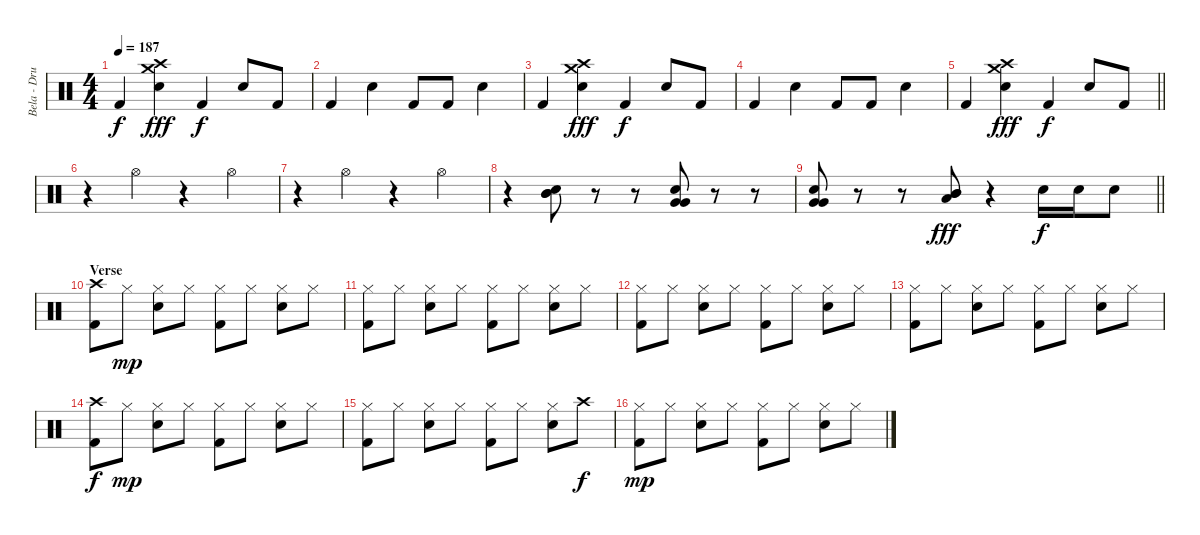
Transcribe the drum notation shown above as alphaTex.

\track ("Bela - Drums" "Bela - Dru") {instrument percussion}
\staff {score}
\articulation defaults
\ts (4 4)
\tempo 187
\clef neutral
\ks c "Kick (hit) 2".4{dy f}
("Crash medium (hit)" "Crash high (hit)" "Snare (hit) 2").4{dy fff} "Kick (hit) 2".4{dy f} "Snare (hit) 2".8 "Kick (hit) 2".8 |
"Kick (hit) 2".4 "Snare (hit) 2".4 "Kick (hit) 2".8 "Kick (hit) 2".8 "Snare (hit) 2".4 |
"Kick (hit) 2".4 ("Crash medium (hit)" "Crash high (hit)" "Snare (hit) 2").4{dy fff} "Kick (hit) 2".4{dy f} "Snare (hit) 2".8 "Kick (hit) 2".8 |
"Kick (hit) 2".4 "Snare (hit) 2".4 "Kick (hit) 2".8 "Kick (hit) 2".8 "Snare (hit) 2".4 |
\barLineRight lightlight "Kick (hit) 2".4
("Crash medium (hit)" "Crash high (hit)" "Snare (hit) 2").4{dy fff} "Kick (hit) 2".4{dy f} "Snare (hit) 2".8 "Kick (hit) 2".8 |
\section ("" "")
r.4 "Hi-Hat (open)".4 r.4 "Hi-Hat (open)".4 |
r.4 "Hi-Hat (open)".4 r.4 "Hi-Hat (open)".4 |
r.4 ("Mid Tom (hit)" "Mid Tom (hit)" "Electric Snare (hit)").8 r.8 r.8 ("Very Low Tom (hit)" "Very Low Tom (hit)" "Electric Snare (hit)").8 r.8 r.8 |
\barLineRight lightlight
("Very Low Tom (hit)" "Very Low Tom (hit)" "Electric Snare (hit)").8 r.8 r.8 ("Mid Tom (hit)" "Mid Tom (hit)" "Low Tom (hit)").8{dy fff} r.4 "Electric Snare (hit)".16{dy f} "Electric Snare (hit)".16 "Electric Snare (hit)".8 |
\section ("" "Verse")
("Crash high (hit)" "Kick (hit) 2").8 "Hi-Hat (closed)".8{dy mp} ("Hi-Hat (closed)" "Snare (hit) 2").8 "Hi-Hat (closed)".8 ("Hi-Hat (closed)" "Kick (hit) 2").8 "Hi-Hat (closed)".8 ("Hi-Hat (closed)" "Snare (hit) 2").8 "Hi-Hat (closed)".8 |
("Hi-Hat (closed)" "Kick (hit) 2").8 "Hi-Hat (closed)".8 ("Hi-Hat (closed)" "Snare (hit) 2").8 "Hi-Hat (closed)".8 ("Hi-Hat (closed)" "Kick (hit) 2").8 "Hi-Hat (closed)".8 ("Hi-Hat (closed)" "Snare (hit) 2").8 "Hi-Hat (closed)".8 |
("Hi-Hat (closed)" "Kick (hit) 2").8 "Hi-Hat (closed)".8 ("Hi-Hat (closed)" "Snare (hit) 2").8 "Hi-Hat (closed)".8 ("Hi-Hat (closed)" "Kick (hit) 2").8 "Hi-Hat (closed)".8 ("Hi-Hat (closed)" "Snare (hit) 2").8 "Hi-Hat (closed)".8 |
("Hi-Hat (closed)" "Kick (hit) 2").8 "Hi-Hat (closed)".8 ("Hi-Hat (closed)" "Snare (hit) 2").8 "Hi-Hat (closed)".8 ("Hi-Hat (closed)" "Kick (hit) 2").8 "Hi-Hat (closed)".8 ("Hi-Hat (closed)" "Snare (hit) 2").8 "Hi-Hat (closed)".8 |
("Crash high (hit)" "Kick (hit) 2").8{dy f} "Hi-Hat (closed)".8{dy mp} ("Hi-Hat (closed)" "Snare (hit) 2").8 "Hi-Hat (closed)".8 ("Hi-Hat (closed)" "Kick (hit) 2").8 "Hi-Hat (closed)".8 ("Hi-Hat (closed)" "Snare (hit) 2").8 "Hi-Hat (closed)".8 |
("Hi-Hat (closed)" "Kick (hit) 2").8 "Hi-Hat (closed)".8 ("Hi-Hat (closed)" "Snare (hit) 2").8 "Hi-Hat (closed)".8 ("Hi-Hat (closed)" "Kick (hit) 2").8 "Hi-Hat (closed)".8 ("Hi-Hat (closed)" "Snare (hit) 2").8 "Crash high (hit)".8{dy f} |
("Hi-Hat (closed)" "Kick (hit) 2").8{dy mp} "Hi-Hat (closed)".8 ("Hi-Hat (closed)" "Snare (hit) 2").8 "Hi-Hat (closed)".8 ("Hi-Hat (closed)" "Kick (hit) 2").8 "Hi-Hat (closed)".8 ("Hi-Hat (closed)" "Snare (hit) 2").8 "Hi-Hat (closed)".8
